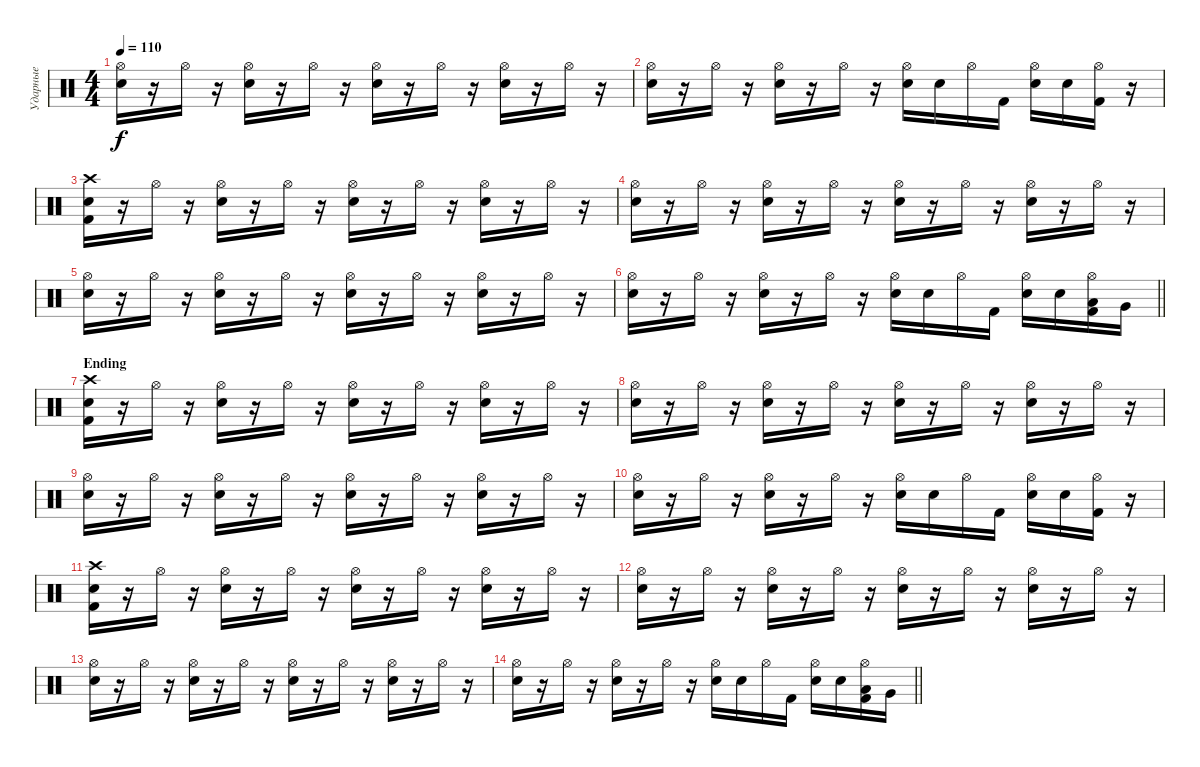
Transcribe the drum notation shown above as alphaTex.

\track ("Ударные" "Ударные") {instrument percussion}
\staff {score}
\articulation defaults
\ts (4 4)
\tempo 110
\clef neutral
\ks c
("Hi-Hat (open)" "Electric Snare (hit)").16{dy f} r.16 "Hi-Hat (open)".16 r.16 ("Hi-Hat (open)" "Electric Snare (hit)").16 r.16 "Hi-Hat (open)".16 r.16 ("Hi-Hat (open)" "Electric Snare (hit)").16 r.16 "Hi-Hat (open)".16 r.16 ("Hi-Hat (open)" "Electric Snare (hit)").16 r.16 "Hi-Hat (open)".16 r.16 |
("Hi-Hat (open)" "Electric Snare (hit)").16 r.16 "Hi-Hat (open)".16 r.16 ("Hi-Hat (open)" "Electric Snare (hit)").16 r.16 "Hi-Hat (open)".16 r.16 ("Hi-Hat (open)" "Electric Snare (hit)").16 "Electric Snare (hit)".16 "Hi-Hat (open)".16 "Kick (hit) 2".16 ("Hi-Hat (open)" "Electric Snare (hit)").16 "Electric Snare (hit)".16 ("Hi-Hat (open)" "Kick (hit) 2").16 r.16 |
("Crash high (hit)" "Electric Snare (hit)" "Kick (hit) 2").16 r.16 "Hi-Hat (open)".16 r.16 ("Hi-Hat (open)" "Electric Snare (hit)").16 r.16 "Hi-Hat (open)".16 r.16 ("Hi-Hat (open)" "Electric Snare (hit)").16 r.16 "Hi-Hat (open)".16 r.16 ("Hi-Hat (open)" "Electric Snare (hit)").16 r.16 "Hi-Hat (open)".16 r.16 |
("Hi-Hat (open)" "Electric Snare (hit)").16 r.16 "Hi-Hat (open)".16 r.16 ("Hi-Hat (open)" "Electric Snare (hit)").16 r.16 "Hi-Hat (open)".16 r.16 ("Hi-Hat (open)" "Electric Snare (hit)").16 r.16 "Hi-Hat (open)".16 r.16 ("Hi-Hat (open)" "Electric Snare (hit)").16 r.16 "Hi-Hat (open)".16 r.16 |
("Hi-Hat (open)" "Electric Snare (hit)").16 r.16 "Hi-Hat (open)".16 r.16 ("Hi-Hat (open)" "Electric Snare (hit)").16 r.16 "Hi-Hat (open)".16 r.16 ("Hi-Hat (open)" "Electric Snare (hit)").16 r.16 "Hi-Hat (open)".16 r.16 ("Hi-Hat (open)" "Electric Snare (hit)").16 r.16 "Hi-Hat (open)".16 r.16 |
\barLineRight lightlight
("Hi-Hat (open)" "Electric Snare (hit)").16 r.16 "Hi-Hat (open)".16 r.16 ("Hi-Hat (open)" "Electric Snare (hit)").16 r.16 "Hi-Hat (open)".16 r.16 ("Hi-Hat (open)" "Electric Snare (hit)").16 "Electric Snare (hit)".16 "Hi-Hat (open)".16 "Kick (hit) 2".16 ("Hi-Hat (open)" "Electric Snare (hit)").16 "Electric Snare (hit)".16 ("Hi-Hat (open)" "Low Tom (hit)" "Kick (hit) 2").16 "Very Low Tom (hit)".16 |
\section ("" "Ending")
("Crash high (hit)" "Electric Snare (hit)" "Kick (hit) 2").16 r.16 "Hi-Hat (open)".16 r.16 ("Hi-Hat (open)" "Electric Snare (hit)").16 r.16 "Hi-Hat (open)".16 r.16 ("Hi-Hat (open)" "Electric Snare (hit)").16 r.16 "Hi-Hat (open)".16 r.16 ("Hi-Hat (open)" "Electric Snare (hit)").16 r.16 "Hi-Hat (open)".16 r.16 |
("Hi-Hat (open)" "Electric Snare (hit)").16 r.16 "Hi-Hat (open)".16 r.16 ("Hi-Hat (open)" "Electric Snare (hit)").16 r.16 "Hi-Hat (open)".16 r.16 ("Hi-Hat (open)" "Electric Snare (hit)").16 r.16 "Hi-Hat (open)".16 r.16 ("Hi-Hat (open)" "Electric Snare (hit)").16 r.16 "Hi-Hat (open)".16 r.16 |
("Hi-Hat (open)" "Electric Snare (hit)").16 r.16 "Hi-Hat (open)".16 r.16 ("Hi-Hat (open)" "Electric Snare (hit)").16 r.16 "Hi-Hat (open)".16 r.16 ("Hi-Hat (open)" "Electric Snare (hit)").16 r.16 "Hi-Hat (open)".16 r.16 ("Hi-Hat (open)" "Electric Snare (hit)").16 r.16 "Hi-Hat (open)".16 r.16 |
("Hi-Hat (open)" "Electric Snare (hit)").16 r.16 "Hi-Hat (open)".16 r.16 ("Hi-Hat (open)" "Electric Snare (hit)").16 r.16 "Hi-Hat (open)".16 r.16 ("Hi-Hat (open)" "Electric Snare (hit)").16 "Electric Snare (hit)".16 "Hi-Hat (open)".16 "Kick (hit) 2".16 ("Hi-Hat (open)" "Electric Snare (hit)").16 "Electric Snare (hit)".16 ("Hi-Hat (open)" "Kick (hit) 2").16 r.16 |
("Crash high (hit)" "Electric Snare (hit)" "Kick (hit) 2").16 r.16 "Hi-Hat (open)".16 r.16 ("Hi-Hat (open)" "Electric Snare (hit)").16 r.16 "Hi-Hat (open)".16 r.16 ("Hi-Hat (open)" "Electric Snare (hit)").16 r.16 "Hi-Hat (open)".16 r.16 ("Hi-Hat (open)" "Electric Snare (hit)").16 r.16 "Hi-Hat (open)".16 r.16 |
("Hi-Hat (open)" "Electric Snare (hit)").16 r.16 "Hi-Hat (open)".16 r.16 ("Hi-Hat (open)" "Electric Snare (hit)").16 r.16 "Hi-Hat (open)".16 r.16 ("Hi-Hat (open)" "Electric Snare (hit)").16 r.16 "Hi-Hat (open)".16 r.16 ("Hi-Hat (open)" "Electric Snare (hit)").16 r.16 "Hi-Hat (open)".16 r.16 |
("Hi-Hat (open)" "Electric Snare (hit)").16 r.16 "Hi-Hat (open)".16 r.16 ("Hi-Hat (open)" "Electric Snare (hit)").16 r.16 "Hi-Hat (open)".16 r.16 ("Hi-Hat (open)" "Electric Snare (hit)").16 r.16 "Hi-Hat (open)".16 r.16 ("Hi-Hat (open)" "Electric Snare (hit)").16 r.16 "Hi-Hat (open)".16 r.16 |
\barLineRight lightlight
("Hi-Hat (open)" "Electric Snare (hit)").16 r.16 "Hi-Hat (open)".16 r.16 ("Hi-Hat (open)" "Electric Snare (hit)").16 r.16 "Hi-Hat (open)".16 r.16 ("Hi-Hat (open)" "Electric Snare (hit)").16 "Electric Snare (hit)".16 "Hi-Hat (open)".16 "Kick (hit) 2".16 ("Hi-Hat (open)" "Electric Snare (hit)").16 "Electric Snare (hit)".16 ("Hi-Hat (open)" "Low Tom (hit)" "Kick (hit) 2").16 "Very Low Tom (hit)".16
